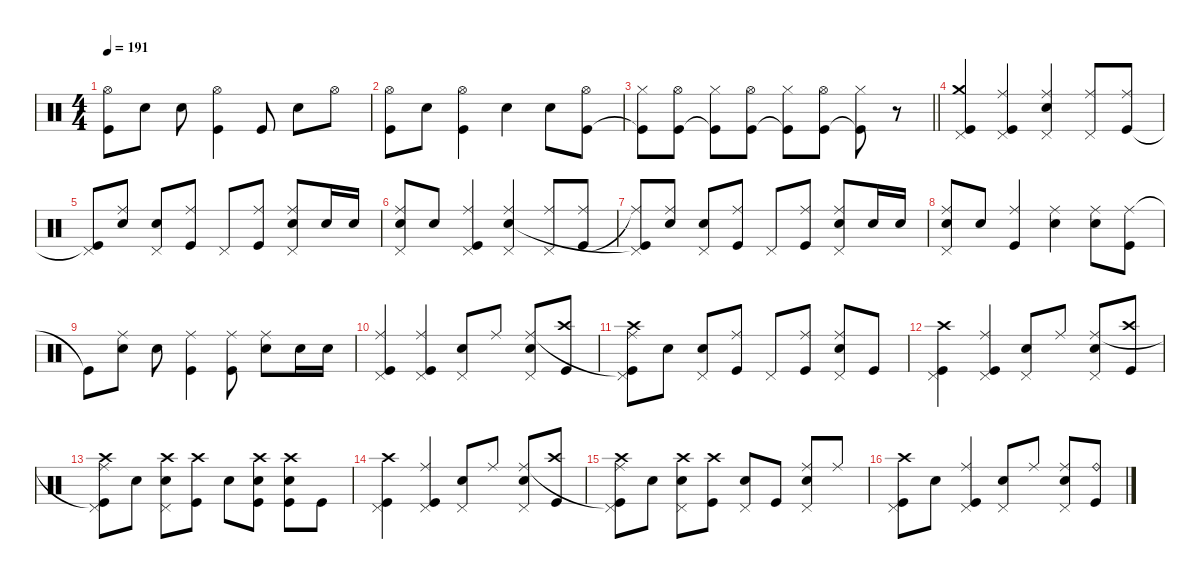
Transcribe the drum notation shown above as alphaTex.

\defaultSystemsLayout 4
\hideDynamics
\bracketExtendMode nobrackets
\singleTrackTrackNamePolicy hidden
\multiTrackTrackNamePolicy hidden
\firstSystemTrackNameMode fullname
\firstSystemTrackNameOrientation horizontal
\otherSystemsTrackNameOrientation horizontal
\track ("Drumkit" "drm.") {instrument percussion}
\staff {score}
\articulation defaults
\ts (4 4)
\tempo 191
\clef neutral
\ks c
("Kick (hit)"{t} "Hi-Hat (open)"{t}).8{dy mf beam Down} "Snare (hit) 2".8{beam Down} "Snare (hit) 2".8{beam Down} ("Kick (hit)" "Hi-Hat (open)").4{beam Down} "Kick (hit)".8{beam Up} "Snare (hit) 2".8{beam Down} "Hi-Hat (open)".8{beam Down} |
("Kick (hit)" "Hi-Hat (open)").8{beam Down} "Snare (hit) 2".8{beam Down} ("Kick (hit)" "Hi-Hat (open)").4{beam Down} "Snare (hit) 2".4{beam Down} "Snare (hit) 2".8{beam Down} ("Kick (hit)" "Hi-Hat (open)").8{beam Down} |
\barLineRight lightlight
("Kick (hit)"{t} "Hi-Hat (closed)").8{beam Down} ("Kick (hit)" "Hi-Hat (open)").8{beam Down} ("Kick (hit)"{t} "Hi-Hat (closed)").8{beam Down} ("Kick (hit)" "Hi-Hat (open)").8{beam Down} ("Kick (hit)"{t} "Hi-Hat (closed)").8{beam Down} ("Kick (hit)" "Hi-Hat (open)").8{beam Down} ("Kick (hit)"{t} "Hi-Hat (closed)").8{beam Down} r.8{beam Down} |
("Pedal Hi-Hat (hit)" "Crash medium (hit)" "Kick (hit)").4{dy f beam Up} ("Pedal Hi-Hat (hit)" "Ride (middle)" "Kick (hit)").4{beam Up} ("Pedal Hi-Hat (hit)" "Ride (middle)" "Snare (hit) 2").4{beam Up} ("Pedal Hi-Hat (hit)" "Ride (middle)").8{beam Up} ("Ride (middle)" "Kick (hit)").8{beam Up} |
("Pedal Hi-Hat (hit)" "Kick (hit)"{t}).8{beam Up} ("Ride (middle)" "Snare (hit) 2").8{beam Up} ("Pedal Hi-Hat (hit)" "Snare (hit) 2").8{beam Up} ("Ride (middle)" "Kick (hit)").8{beam Up} "Pedal Hi-Hat (hit)".8{beam Up} ("Ride (middle)" "Kick (hit)").8{beam Up} ("Pedal Hi-Hat (hit)" "Ride (middle)" "Snare (hit) 2").8{beam Up} "Snare (hit) 2".16{dy mp beam Up} "Snare (hit) 2".16{beam Up} |
("Pedal Hi-Hat (hit)" "Ride (middle)" "Snare (hit) 2").8{dy f beam Up} "Snare (hit) 2".8{dy mf beam Up} ("Pedal Hi-Hat (hit)" "Ride (middle)" "Kick (hit)").4{dy f beam Up} ("Pedal Hi-Hat (hit)" "Ride (middle)" "Snare (hit) 2").4{beam Up} ("Pedal Hi-Hat (hit)" "Ride (middle)").8{beam Up} ("Ride (middle)" "Kick (hit)").8{dy mf beam Up} |
("Pedal Hi-Hat (hit)" "Ride (middle)"{t} "Kick (hit)"{t}).8{dy f beam Up} ("Ride (middle)" "Snare (hit) 2").8{beam Up} ("Pedal Hi-Hat (hit)" "Snare (hit) 2").8{beam Up} ("Kick (hit)" "Ride (middle)").8{beam Up} "Pedal Hi-Hat (hit)".8{beam Up} ("Ride (middle)" "Kick (hit)").8{beam Up} ("Pedal Hi-Hat (hit)" "Ride (middle)" "Snare (hit) 2").8{beam Up} "Snare (hit) 2".16{dy mp beam Up} "Snare (hit) 2".16{beam Up} |
("Pedal Hi-Hat (hit)" "Ride (middle)" "Snare (hit) 2").8{dy f beam Up} "Snare (hit) 2".8{dy mf beam Up} ("Ride (middle)" "Kick (hit)").4{dy f beam Up} ("Ride (middle)" "Snare (hit) 2").4{beam Down} ("Ride (middle)" "Snare (hit) 2").8{beam Down} ("Ride (middle)" "Kick (hit)").8{beam Down} |
"Kick (hit)"{t}.8{dy mf beam Down} ("Ride (middle)" "Snare (hit) 2").8{dy f beam Down} "Snare (hit) 2".8{beam Down} ("Ride (middle)" "Kick (hit)").4{beam Down} ("Ride (middle)" "Kick (hit)").8{beam Down} ("Ride (middle)" "Snare (hit) 2").8{beam Down} "Snare (hit) 2".16{dy mp beam Down} "Snare (hit) 2".16{beam Down} |
("Pedal Hi-Hat (hit)" "Kick (hit)" "Ride (middle)").4{dy f beam Up} ("Pedal Hi-Hat (hit)" "Kick (hit)" "Ride (middle)").4{beam Up} ("Pedal Hi-Hat (hit)" "Snare (hit) 2").8{beam Up} "Ride (middle)".8{dy mp beam Up} ("Pedal Hi-Hat (hit)" "Snare (hit) 2" "Ride (middle)").8{dy f beam Up} ("Kick (hit)" "Crash high (hit)").8{dy mp beam Up} |
("Pedal Hi-Hat (hit)" "Crash high (hit)" "Kick (hit)"{t} "Ride (middle)").8{dy f beam Down} "Snare (hit) 2".8{dy mp beam Down} ("Pedal Hi-Hat (hit)" "Snare (hit) 2").8{dy f beam Up} ("Ride (middle)" "Kick (hit)").8{dy mp beam Up} "Pedal Hi-Hat (hit)".8{dy f beam Up} ("Kick (hit)" "Ride (middle)").8{dy mp beam Up} ("Pedal Hi-Hat (hit)" "Snare (hit) 2" "Ride (middle)").8{dy f beam Up} "Kick (hit)".8{dy mp beam Up} |
("Pedal Hi-Hat (hit)" "Kick (hit)" "Crash high (hit)").4{dy f beam Down} ("Pedal Hi-Hat (hit)" "Kick (hit)" "Ride (middle)").4{beam Up} ("Pedal Hi-Hat (hit)" "Snare (hit) 2").8{beam Up} "Ride (middle)".8{dy mf beam Up} ("Pedal Hi-Hat (hit)" "Snare (hit) 2" "Ride (middle)").8{dy f beam Up} ("Kick (hit)" "Crash high (hit)").8{dy mp beam Up} |
("Pedal Hi-Hat (hit)" "Crash high (hit)" "Kick (hit)"{t} "Ride (middle)").8{dy f beam Down} "Snare (hit) 2".8{dy mp beam Down} ("Pedal Hi-Hat (hit)" "Snare (hit) 2" "Crash high (hit)").8{dy f beam Down} ("Kick (hit)" "Crash high (hit)").8{dy mp beam Down} "Snare (hit) 2".8{beam Down} ("Snare (hit) 2" "Kick (hit)" "Crash high (hit)").8{beam Down} ("Snare (hit) 2" "Kick (hit)" "Crash high (hit)").8{beam Down} "Kick (hit)".8{beam Down} |
("Pedal Hi-Hat (hit)" "Kick (hit)" "Crash high (hit)").4{dy f beam Down} ("Pedal Hi-Hat (hit)" "Kick (hit)" "Ride (middle)").4{beam Up} ("Pedal Hi-Hat (hit)" "Snare (hit) 2").8{beam Up} "Ride (middle)".8{dy mf beam Up} ("Pedal Hi-Hat (hit)" "Snare (hit) 2" "Ride (middle)").8{dy f beam Up} ("Kick (hit)" "Crash high (hit)").8{dy mp beam Up} |
("Pedal Hi-Hat (hit)" "Crash high (hit)" "Kick (hit)"{t} "Ride (middle)").8{dy f beam Down} "Snare (hit) 2".8{dy mp beam Down} ("Pedal Hi-Hat (hit)" "Snare (hit) 2" "Crash high (hit)").8{dy f beam Down} ("Kick (hit)" "Crash high (hit)").8{dy mp beam Down} ("Pedal Hi-Hat (hit)" "Snare (hit) 2").8{dy f beam Up} "Kick (hit)".8{dy mp beam Up} ("Pedal Hi-Hat (hit)" "Snare (hit) 2" "Ride (middle)").8{dy f beam Up} "Ride (middle)".8{dy mp beam Up} |
("Pedal Hi-Hat (hit)" "Kick (hit)" "Crash high (hit)").8{dy f beam Down} "Snare (hit) 2".8{dy mp beam Down} ("Pedal Hi-Hat (hit)" "Kick (hit)" "Ride (middle)").4{dy f beam Up} ("Pedal Hi-Hat (hit)" "Snare (hit) 2").8{beam Up} "Ride (middle)".8{dy mp beam Up} ("Pedal Hi-Hat (hit)" "Snare (hit) 2" "Ride (middle)").8{dy f beam Up} ("Kick (hit)" "Ride (bell)").8{dy mp beam Up}
